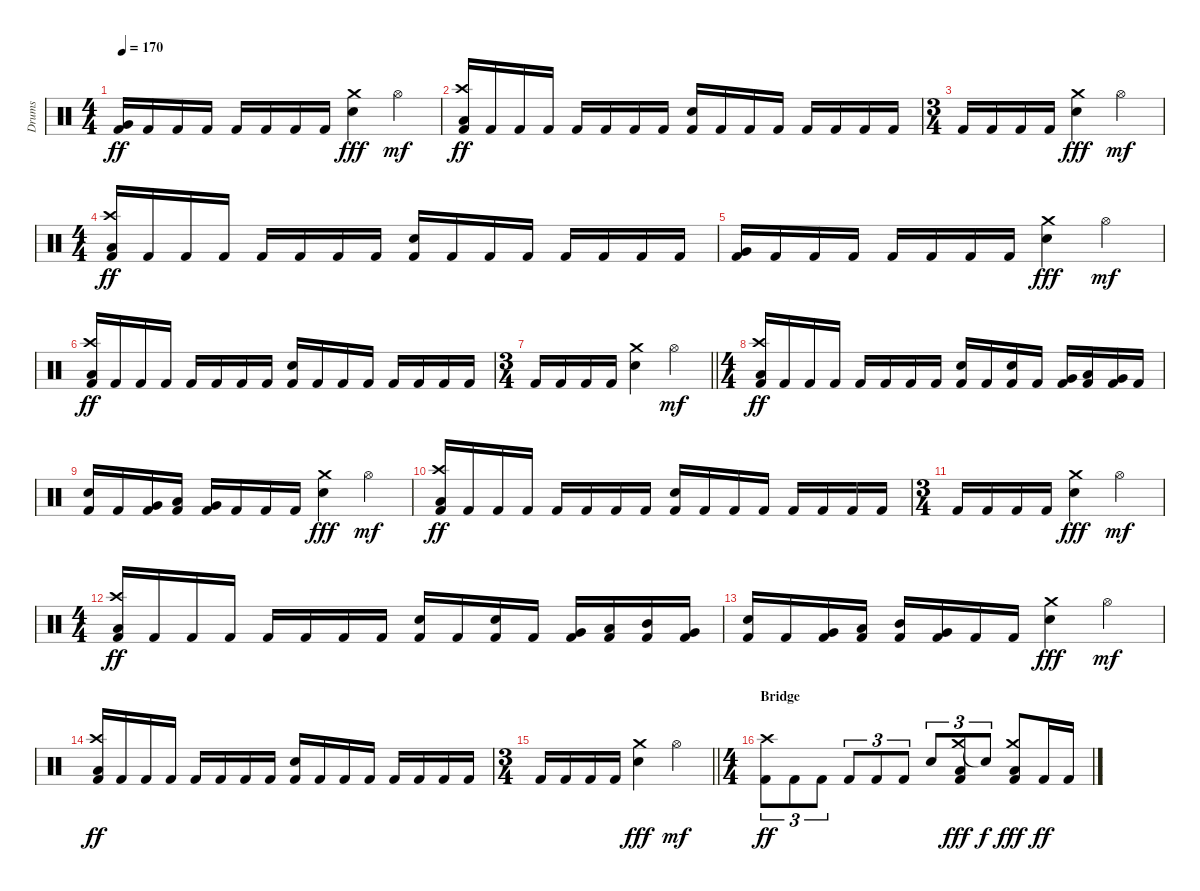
\track ("Drums" "Drums") {instrument percussion}
\staff {score}
\articulation defaults
\ts (4 4)
\tempo 170
\clef neutral
\ks c
("Very Low Tom (hit)" "Kick (hit) 2").16{dy ff} "Kick (hit) 2".16 "Kick (hit) 2".16 "Kick (hit) 2".16 "Kick (hit) 2".16 "Kick (hit) 2".16 "Kick (hit) 2".16 "Kick (hit) 2".16 ("Crash medium (hit)" "Snare (hit) 2").4{dy fff} "Hi-Hat (open)".4{dy mf} |
("Crash high (hit)" "Low Tom (hit)" "Kick (hit) 2").16{dy ff} "Kick (hit) 2".16 "Kick (hit) 2".16 "Kick (hit) 2".16 "Kick (hit) 2".16 "Kick (hit) 2".16 "Kick (hit) 2".16 "Kick (hit) 2".16 ("Snare (hit) 2" "Kick (hit) 2").16 "Kick (hit) 2".16 "Kick (hit) 2".16 "Kick (hit) 2".16 "Kick (hit) 2".16 "Kick (hit) 2".16 "Kick (hit) 2".16 "Kick (hit) 2".16 |
\ts (3 4)
"Kick (hit) 2".16 "Kick (hit) 2".16 "Kick (hit) 2".16 "Kick (hit) 2".16 ("Crash medium (hit)" "Snare (hit) 2").4{dy fff} "Hi-Hat (open)".4{dy mf} |
\ts (4 4)
("Crash high (hit)" "Low Tom (hit)" "Kick (hit) 2").16{dy ff} "Kick (hit) 2".16 "Kick (hit) 2".16 "Kick (hit) 2".16 "Kick (hit) 2".16 "Kick (hit) 2".16 "Kick (hit) 2".16 "Kick (hit) 2".16 ("Snare (hit) 2" "Kick (hit) 2").16 "Kick (hit) 2".16 "Kick (hit) 2".16 "Kick (hit) 2".16 "Kick (hit) 2".16 "Kick (hit) 2".16 "Kick (hit) 2".16 "Kick (hit) 2".16 |
("Very Low Tom (hit)" "Kick (hit) 2").16 "Kick (hit) 2".16 "Kick (hit) 2".16 "Kick (hit) 2".16 "Kick (hit) 2".16 "Kick (hit) 2".16 "Kick (hit) 2".16 "Kick (hit) 2".16 ("Crash medium (hit)" "Snare (hit) 2").4{dy fff} "Hi-Hat (open)".4{dy mf} |
("Crash high (hit)" "Low Tom (hit)" "Kick (hit) 2").16{dy ff} "Kick (hit) 2".16 "Kick (hit) 2".16 "Kick (hit) 2".16 "Kick (hit) 2".16 "Kick (hit) 2".16 "Kick (hit) 2".16 "Kick (hit) 2".16 ("Snare (hit) 2" "Kick (hit) 2").16 "Kick (hit) 2".16 "Kick (hit) 2".16 "Kick (hit) 2".16 "Kick (hit) 2".16 "Kick (hit) 2".16 "Kick (hit) 2".16 "Kick (hit) 2".16 |
\ts (3 4)
\barLineRight lightlight "Kick (hit) 2".16 "Kick (hit) 2".16 "Kick (hit) 2".16 "Kick (hit) 2".16
("Crash medium (hit)" "Snare (hit) 2").4 "Hi-Hat (open)".4{dy mf} |
\ts (4 4)
("Crash high (hit)" "Low Tom (hit)" "Kick (hit) 2").16{dy ff} "Kick (hit) 2".16 "Kick (hit) 2".16 "Kick (hit) 2".16 "Kick (hit) 2".16 "Kick (hit) 2".16 "Kick (hit) 2".16 "Kick (hit) 2".16 ("Snare (hit) 2" "Kick (hit) 2").16 "Kick (hit) 2".16 ("Snare (hit) 2" "Kick (hit) 2").16 "Kick (hit) 2".16 ("Very Low Tom (hit)" "Kick (hit) 2").16 ("Low Tom (hit)" "Kick (hit) 2").16 ("Very Low Tom (hit)" "Kick (hit) 2").16 "Kick (hit) 2".16 |
("Snare (hit) 2" "Kick (hit) 2").16 "Kick (hit) 2".16 ("Very Low Tom (hit)" "Kick (hit) 2").16 ("Low Tom (hit)" "Kick (hit) 2").16 ("Very Low Tom (hit)" "Kick (hit) 2").16 "Kick (hit) 2".16 "Kick (hit) 2".16 "Kick (hit) 2".16 ("Crash medium (hit)" "Snare (hit) 2").4{dy fff} "Hi-Hat (open)".4{dy mf} |
("Crash high (hit)" "Low Tom (hit)" "Kick (hit) 2").16{dy ff} "Kick (hit) 2".16 "Kick (hit) 2".16 "Kick (hit) 2".16 "Kick (hit) 2".16 "Kick (hit) 2".16 "Kick (hit) 2".16 "Kick (hit) 2".16 ("Snare (hit) 2" "Kick (hit) 2").16 "Kick (hit) 2".16 "Kick (hit) 2".16 "Kick (hit) 2".16 "Kick (hit) 2".16 "Kick (hit) 2".16 "Kick (hit) 2".16 "Kick (hit) 2".16 |
\ts (3 4)
"Kick (hit) 2".16 "Kick (hit) 2".16 "Kick (hit) 2".16 "Kick (hit) 2".16 ("Crash medium (hit)" "Snare (hit) 2").4{dy fff} "Hi-Hat (open)".4{dy mf} |
\ts (4 4)
("Crash high (hit)" "Low Tom (hit)" "Kick (hit) 2").16{dy ff} "Kick (hit) 2".16 "Kick (hit) 2".16 "Kick (hit) 2".16 "Kick (hit) 2".16 "Kick (hit) 2".16 "Kick (hit) 2".16 "Kick (hit) 2".16 ("Snare (hit) 2" "Kick (hit) 2").16 "Kick (hit) 2".16 ("Snare (hit) 2" "Kick (hit) 2").16 "Kick (hit) 2".16 ("Very Low Tom (hit)" "Kick (hit) 2").16 ("Low Tom (hit)" "Kick (hit) 2").16 ("Mid Tom (hit)" "Kick (hit) 2").16 ("Very Low Tom (hit)" "Kick (hit) 2").16 |
("Snare (hit) 2" "Kick (hit) 2").16 "Kick (hit) 2".16 ("Very Low Tom (hit)" "Kick (hit) 2").16 ("Low Tom (hit)" "Kick (hit) 2").16 ("Mid Tom (hit)" "Kick (hit) 2").16 ("Very Low Tom (hit)" "Kick (hit) 2").16 "Kick (hit) 2".16 "Kick (hit) 2".16 ("Crash medium (hit)" "Snare (hit) 2").4{dy fff} "Hi-Hat (open)".4{dy mf} |
("Crash high (hit)" "Low Tom (hit)" "Kick (hit) 2").16{dy ff} "Kick (hit) 2".16 "Kick (hit) 2".16 "Kick (hit) 2".16 "Kick (hit) 2".16 "Kick (hit) 2".16 "Kick (hit) 2".16 "Kick (hit) 2".16 ("Snare (hit) 2" "Kick (hit) 2").16 "Kick (hit) 2".16 "Kick (hit) 2".16 "Kick (hit) 2".16 "Kick (hit) 2".16 "Kick (hit) 2".16 "Kick (hit) 2".16 "Kick (hit) 2".16 |
\ts (3 4)
\barLineRight lightlight "Kick (hit) 2".16 "Kick (hit) 2".16 "Kick (hit) 2".16 "Kick (hit) 2".16
("Crash medium (hit)" "Snare (hit) 2").4{dy fff} "Hi-Hat (open)".4{dy mf} |
\ts (4 4)
\section ("" "Bridge")
("Crash high (hit)" "Kick (hit) 2").8{tu (3 2) dy ff} "Kick (hit) 2".8{tu (3 2)} "Kick (hit) 2".8{tu (3 2)} "Kick (hit) 2".8{tu (3 2)} "Kick (hit) 2".8{tu (3 2)} "Kick (hit) 2".8{tu (3 2)} "Snare (hit) 2".8{tu (3 2)} ("Crash medium (hit)" "Low Floor Tom (hit)" "Kick (hit) 2").8{tu (3 2) dy fff} "Snare (hit)"{t}.8{tu (3 2) dy f} ("Crash medium (hit)" "Low Floor Tom (hit)" "Kick (hit) 2").8{dy fff} "Kick (hit) 2".16{dy ff} "Kick (hit) 2".16
